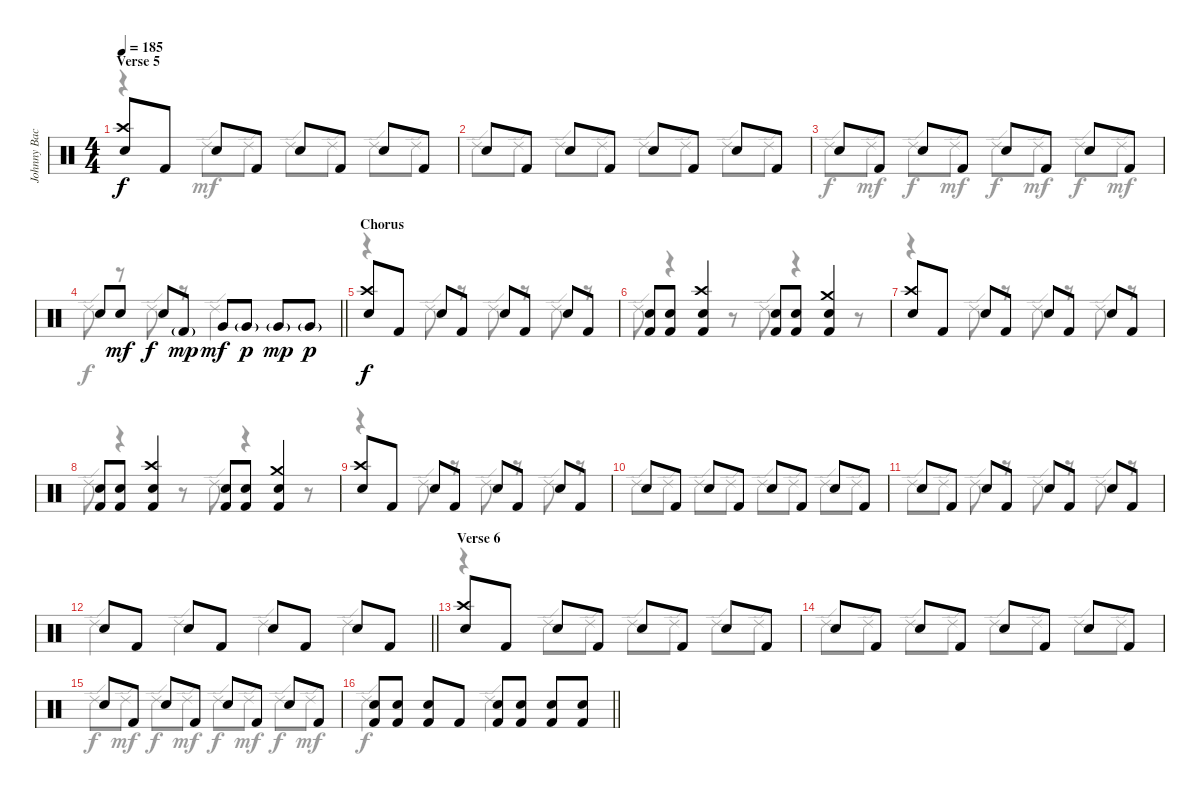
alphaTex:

\track ("Johnny Backbeat" "Johnny Bac") {instrument percussion}
\staff {score}
\articulation defaults
\voice
\ts (4 4)
\section ("" "Verse 5")
\tempo 185
\clef neutral
\ks c
("Crash high (hit)" "Electric Snare (hit)").8{dy f} "Kick (hit) 2".8 "Electric Snare (hit)".8 "Kick (hit) 2".8 "Electric Snare (hit)".8 "Kick (hit) 2".8 "Electric Snare (hit)".8 "Kick (hit) 2".8 |
"Electric Snare (hit)".8 "Kick (hit) 2".8 "Electric Snare (hit)".8 "Kick (hit) 2".8 "Electric Snare (hit)".8 "Kick (hit) 2".8 "Electric Snare (hit)".8 "Kick (hit) 2".8 |
"Electric Snare (hit)".8 "Kick (hit) 2".8 "Electric Snare (hit)".8 "Kick (hit) 2".8 "Electric Snare (hit)".8 "Kick (hit) 2".8 "Electric Snare (hit)".8 "Kick (hit) 2".8 |
\barLineRight lightlight "Electric Snare (hit)".8 "Electric Snare (hit)".8{dy mf} "Electric Snare (hit)".8{dy f} "Kick (hit) 2"{g}.8{dy mp} "Very Low Tom (hit)".8{dy mf} "Very Low Tom (hit)"{g}.8{dy p} "Very Low Tom (hit)"{g}.8{dy mp} "Very Low Tom (hit)"{g}.8{dy p}
|
\section ("" "Chorus")
("Crash high (hit)" "Electric Snare (hit)").8{dy f} "Kick (hit) 2".8 "Electric Snare (hit)".8 "Kick (hit) 2".8 "Electric Snare (hit)".8 "Kick (hit) 2".8 "Electric Snare (hit)".8 "Kick (hit) 2".8 |
("Electric Snare (hit)" "Kick (hit) 2").8 ("Electric Snare (hit)" "Kick (hit) 2").8 ("Crash high (hit)" "Electric Snare (hit)" "Kick (hit) 2").4 ("Electric Snare (hit)" "Kick (hit) 2").8 ("Electric Snare (hit)" "Kick (hit) 2").8 ("Crash medium (hit)" "Electric Snare (hit)" "Kick (hit) 2").4 |
("Crash high (hit)" "Electric Snare (hit)").8 "Kick (hit) 2".8 "Electric Snare (hit)".8 "Kick (hit) 2".8 "Electric Snare (hit)".8 "Kick (hit) 2".8 "Electric Snare (hit)".8 "Kick (hit) 2".8 |
("Electric Snare (hit)" "Kick (hit) 2").8 ("Electric Snare (hit)" "Kick (hit) 2").8 ("Crash high (hit)" "Electric Snare (hit)" "Kick (hit) 2").4 ("Electric Snare (hit)" "Kick (hit) 2").8 ("Electric Snare (hit)" "Kick (hit) 2").8 ("Crash medium (hit)" "Electric Snare (hit)" "Kick (hit) 2").4 |
("Crash high (hit)" "Electric Snare (hit)").8 "Kick (hit) 2".8 "Electric Snare (hit)".8 "Kick (hit) 2".8 "Electric Snare (hit)".8 "Kick (hit) 2".8 "Electric Snare (hit)".8 "Kick (hit) 2".8 |
"Electric Snare (hit)".8 "Kick (hit) 2".8 "Electric Snare (hit)".8 "Kick (hit) 2".8 "Electric Snare (hit)".8 "Kick (hit) 2".8 "Electric Snare (hit)".8 "Kick (hit) 2".8 |
"Electric Snare (hit)".8 "Kick (hit) 2".8 "Electric Snare (hit)".8 "Kick (hit) 2".8 "Electric Snare (hit)".8 "Kick (hit) 2".8 "Electric Snare (hit)".8 "Kick (hit) 2".8 |
\barLineRight lightlight "Electric Snare (hit)".8 "Kick (hit) 2".8 "Electric Snare (hit)".8 "Kick (hit) 2".8 "Electric Snare (hit)".8 "Kick (hit) 2".8 "Electric Snare (hit)".8 "Kick (hit) 2".8
|
\section ("" "Verse 6")
("Crash high (hit)" "Electric Snare (hit)").8 "Kick (hit) 2".8 "Electric Snare (hit)".8 "Kick (hit) 2".8 "Electric Snare (hit)".8 "Kick (hit) 2".8 "Electric Snare (hit)".8 "Kick (hit) 2".8 |
"Electric Snare (hit)".8 "Kick (hit) 2".8 "Electric Snare (hit)".8 "Kick (hit) 2".8 "Electric Snare (hit)".8 "Kick (hit) 2".8 "Electric Snare (hit)".8 "Kick (hit) 2".8 |
"Electric Snare (hit)".8 "Kick (hit) 2".8 "Electric Snare (hit)".8 "Kick (hit) 2".8 "Electric Snare (hit)".8 "Kick (hit) 2".8 "Electric Snare (hit)".8 "Kick (hit) 2".8 |
\barLineRight lightlight
("Electric Snare (hit)" "Kick (hit) 2").8 ("Electric Snare (hit)" "Kick (hit) 2").8 ("Electric Snare (hit)" "Kick (hit) 2").8 "Kick (hit) 2".8 ("Electric Snare (hit)" "Kick (hit) 2").8 ("Electric Snare (hit)" "Kick (hit) 2").8 ("Electric Snare (hit)" "Kick (hit) 2").8 ("Electric Snare (hit)" "Kick (hit) 2").8
\voice
\clef neutral
\ottava regular
\simile none
\ks c
r.4{dy mf} "Ride (edge) 2".8 "Ride (edge) 2".8 "Ride (edge) 2".8 "Ride (edge) 2".8 "Ride (edge) 2".8 "Ride (edge) 2".8 |
"Ride (edge) 2".8 "Ride (edge) 2".8 "Ride (edge) 2".8 "Ride (edge) 2".8 "Ride (edge) 2".8 "Ride (edge) 2".8 "Ride (edge) 2".8 "Ride (edge) 2".8 |
"Ride (edge) 2".8{dy f} "Ride (edge) 2".8{dy mf} "Ride (edge) 2".8{dy f} "Ride (edge) 2".8{dy mf} "Ride (edge) 2".8{dy f} "Ride (edge) 2".8{dy mf} "Ride (edge) 2".8{dy f} "Ride (edge) 2".8{dy mf} |
\barLineRight lightlight "Ride (edge) 2".8{dy f}
r.8 "Ride (edge) 2".8 r.8 "Ride (edge) 2".2{dy mf} |
r.4 "Ride (edge) 2".8 r.8 "Ride (edge) 2".8 r.8 "Ride (edge) 2".8 r.8 |
"Ride (edge) 2".8 r.4 r.8 "Ride (edge) 2".8 r.4 r.8 |
r.4 "Ride (edge) 2".8 r.8 "Ride (edge) 2".8 r.8 "Ride (edge) 2".8 r.8 |
"Ride (edge) 2".8 r.4 r.8 "Ride (edge) 2".8 r.4 r.8 |
r.4 "Ride (edge) 2".8 r.8 "Ride (edge) 2".8 r.8 "Ride (edge) 2".8 r.8 |
"Ride (edge) 2".8 "Ride (edge) 2".8 "Ride (edge) 2".8 "Ride (edge) 2".8 "Ride (edge) 2".8 "Ride (edge) 2".8 "Ride (edge) 2".8 "Ride (edge) 2".8 |
"Ride (edge) 2".8 "Ride (edge) 2".8 "Ride (edge) 2".8 r.8 "Ride (edge) 2".8 r.8 "Ride (edge) 2".8 r.8 |
\barLineRight lightlight "Ride (edge) 2".4 "Ride (edge) 2".4 "Ride (edge) 2".4 "Ride (edge) 2".4
|
r.4 "Ride (edge) 2".8 "Ride (edge) 2".8 "Ride (edge) 2".8 "Ride (edge) 2".8 "Ride (edge) 2".8 "Ride (edge) 2".8 |
"Ride (edge) 2".8 "Ride (edge) 2".8 "Ride (edge) 2".8 "Ride (edge) 2".8 "Ride (edge) 2".8 "Ride (edge) 2".8 "Ride (edge) 2".8 "Ride (edge) 2".8 |
"Ride (edge) 2".8{dy f} "Ride (edge) 2".8{dy mf} "Ride (edge) 2".8{dy f} "Ride (edge) 2".8{dy mf} "Ride (edge) 2".8{dy f} "Ride (edge) 2".8{dy mf} "Ride (edge) 2".8{dy f} "Ride (edge) 2".8{dy mf} |
\barLineRight lightlight "Ride (edge) 2".2{dy f} "Ride (edge) 2".2
